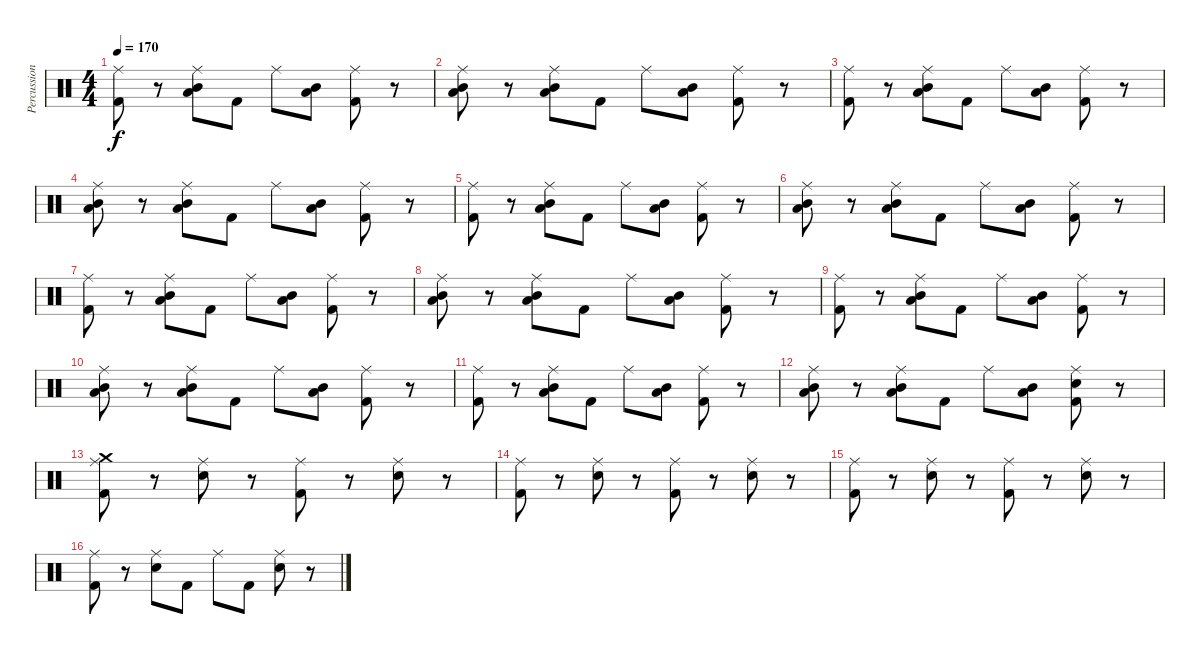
\track ("Percussion" "Percussion") {instrument percussion}
\staff {score}
\articulation defaults
\ts (4 4)
\tempo 170
\clef neutral
\ks c
("Ride (middle)" "Kick (hit) 2").8{dy f} r.8 ("Ride (middle)" "Mid Tom (hit)" "Low Tom (hit)").8 "Kick (hit) 2".8 "Ride (middle)".8 ("Mid Tom (hit)" "Low Tom (hit)").8 ("Ride (middle)" "Kick (hit) 2").8 r.8 |
("Ride (middle)" "Mid Tom (hit)" "Low Tom (hit)").8 r.8 ("Ride (middle)" "Mid Tom (hit)" "Low Tom (hit)").8 "Kick (hit) 2".8 "Ride (middle)".8 ("Mid Tom (hit)" "Low Tom (hit)").8 ("Ride (middle)" "Kick (hit) 2").8 r.8 |
("Ride (middle)" "Kick (hit) 2").8 r.8 ("Ride (middle)" "Mid Tom (hit)" "Low Tom (hit)").8 "Kick (hit) 2".8 "Ride (middle)".8 ("Mid Tom (hit)" "Low Tom (hit)").8 ("Ride (middle)" "Kick (hit) 2").8 r.8 |
("Ride (middle)" "Mid Tom (hit)" "Low Tom (hit)").8 r.8 ("Ride (middle)" "Mid Tom (hit)" "Low Tom (hit)").8 "Kick (hit) 2".8 "Ride (middle)".8 ("Mid Tom (hit)" "Low Tom (hit)").8 ("Ride (middle)" "Kick (hit) 2").8 r.8 |
("Ride (middle)" "Kick (hit) 2").8 r.8 ("Ride (middle)" "Mid Tom (hit)" "Low Tom (hit)").8 "Kick (hit) 2".8 "Ride (middle)".8 ("Mid Tom (hit)" "Low Tom (hit)").8 ("Ride (middle)" "Kick (hit) 2").8 r.8 |
("Ride (middle)" "Mid Tom (hit)" "Low Tom (hit)").8 r.8 ("Ride (middle)" "Mid Tom (hit)" "Low Tom (hit)").8 "Kick (hit) 2".8 "Ride (middle)".8 ("Mid Tom (hit)" "Low Tom (hit)").8 ("Ride (middle)" "Kick (hit) 2").8 r.8 |
("Ride (middle)" "Kick (hit) 2").8 r.8 ("Ride (middle)" "Mid Tom (hit)" "Low Tom (hit)").8 "Kick (hit) 2".8 "Ride (middle)".8 ("Mid Tom (hit)" "Low Tom (hit)").8 ("Ride (middle)" "Kick (hit) 2").8 r.8 |
("Ride (middle)" "Mid Tom (hit)" "Low Tom (hit)").8 r.8 ("Ride (middle)" "Mid Tom (hit)" "Low Tom (hit)").8 "Kick (hit) 2".8 "Ride (middle)".8 ("Mid Tom (hit)" "Low Tom (hit)").8 ("Ride (middle)" "Kick (hit) 2").8 r.8 |
("Ride (middle)" "Kick (hit) 2").8 r.8 ("Ride (middle)" "Mid Tom (hit)" "Low Tom (hit)").8 "Kick (hit) 2".8 "Ride (middle)".8 ("Mid Tom (hit)" "Low Tom (hit)").8 ("Ride (middle)" "Kick (hit) 2").8 r.8 |
("Ride (middle)" "Mid Tom (hit)" "Low Tom (hit)").8 r.8 ("Ride (middle)" "Mid Tom (hit)" "Low Tom (hit)").8 "Kick (hit) 2".8 "Ride (middle)".8 ("Mid Tom (hit)" "Low Tom (hit)").8 ("Ride (middle)" "Kick (hit) 2").8 r.8 |
("Ride (middle)" "Kick (hit) 2").8 r.8 ("Ride (middle)" "Mid Tom (hit)" "Low Tom (hit)").8 "Kick (hit) 2".8 "Ride (middle)".8 ("Mid Tom (hit)" "Low Tom (hit)").8 ("Ride (middle)" "Kick (hit) 2").8 r.8 |
("Ride (middle)" "Mid Tom (hit)" "Low Tom (hit)").8 r.8 ("Ride (middle)" "Mid Tom (hit)" "Low Tom (hit)").8 "Kick (hit) 2".8 "Ride (middle)".8 ("Mid Tom (hit)" "Low Tom (hit)").8 ("Ride (middle)" "Kick (hit) 2" "Electric Snare (hit)").8 r.8 |
("Ride (middle)" "Kick (hit) 2" "Crash medium (hit)").8 r.8 ("Ride (middle)" "Electric Snare (hit)").8 r.8 ("Ride (middle)" "Kick (hit) 2").8 r.8 ("Ride (middle)" "Electric Snare (hit)").8 r.8 |
("Ride (middle)" "Kick (hit) 2").8 r.8 ("Ride (middle)" "Electric Snare (hit)").8 r.8 ("Ride (middle)" "Kick (hit) 2").8 r.8 ("Ride (middle)" "Electric Snare (hit)").8 r.8 |
("Ride (middle)" "Kick (hit) 2").8 r.8 ("Ride (middle)" "Electric Snare (hit)").8 r.8 ("Ride (middle)" "Kick (hit) 2").8 r.8 ("Ride (middle)" "Electric Snare (hit)").8 r.8 |
("Ride (middle)" "Kick (hit) 2").8 r.8 ("Ride (middle)" "Electric Snare (hit)").8 "Kick (hit) 2".8 "Ride (middle)".8 "Kick (hit) 2".8 ("Ride (middle)" "Electric Snare (hit)").8 r.8
